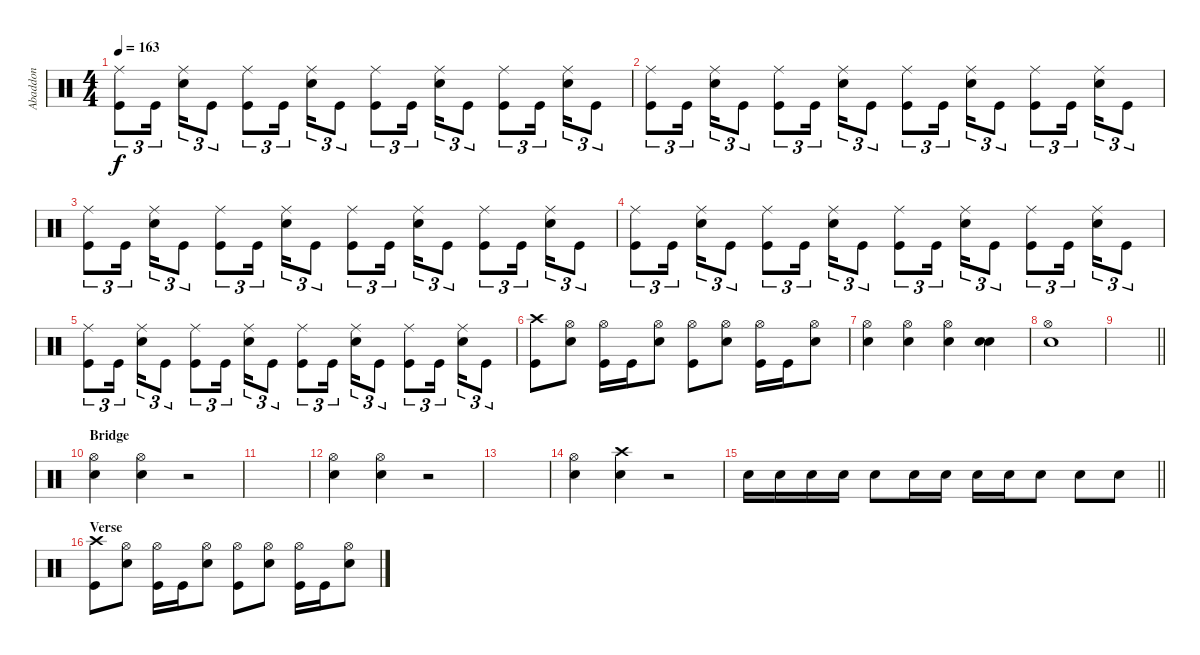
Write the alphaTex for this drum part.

\track ("Abaddon" "Abaddon") {instrument percussion}
\staff {score}
\articulation defaults
\ts (4 4)
\tempo 163
\clef neutral
\ks c
("Ride (middle)" "Kick (hit)").8{tu (3 2) dy f} "Kick (hit)".16{tu (3 2) beam splitsecondary} ("Ride (middle)" "Electric Snare (hit)").16{tu (3 2)} "Kick (hit)".8{tu (3 2)} ("Ride (middle)" "Kick (hit)").8{tu (3 2)} "Kick (hit)".16{tu (3 2) beam splitsecondary} ("Ride (middle)" "Electric Snare (hit)").16{tu (3 2)} "Kick (hit)".8{tu (3 2)} ("Ride (middle)" "Kick (hit)").8{tu (3 2)} "Kick (hit)".16{tu (3 2) beam splitsecondary} ("Ride (middle)" "Electric Snare (hit)").16{tu (3 2)} "Kick (hit)".8{tu (3 2)} ("Ride (middle)" "Kick (hit)").8{tu (3 2)} "Kick (hit)".16{tu (3 2) beam splitsecondary} ("Ride (middle)" "Electric Snare (hit)").16{tu (3 2)} "Kick (hit)".8{tu (3 2)} |
("Ride (middle)" "Kick (hit)").8{tu (3 2)} "Kick (hit)".16{tu (3 2) beam splitsecondary} ("Ride (middle)" "Electric Snare (hit)").16{tu (3 2)} "Kick (hit)".8{tu (3 2)} ("Ride (middle)" "Kick (hit)").8{tu (3 2)} "Kick (hit)".16{tu (3 2) beam splitsecondary} ("Ride (middle)" "Electric Snare (hit)").16{tu (3 2)} "Kick (hit)".8{tu (3 2)} ("Ride (middle)" "Kick (hit)").8{tu (3 2)} "Kick (hit)".16{tu (3 2) beam splitsecondary} ("Ride (middle)" "Electric Snare (hit)").16{tu (3 2)} "Kick (hit)".8{tu (3 2)} ("Ride (middle)" "Kick (hit)").8{tu (3 2)} "Kick (hit)".16{tu (3 2) beam splitsecondary} ("Ride (middle)" "Electric Snare (hit)").16{tu (3 2)} "Kick (hit)".8{tu (3 2)} |
("Ride (middle)" "Kick (hit)").8{tu (3 2)} "Kick (hit)".16{tu (3 2) beam splitsecondary} ("Ride (middle)" "Electric Snare (hit)").16{tu (3 2)} "Kick (hit)".8{tu (3 2)} ("Ride (middle)" "Kick (hit)").8{tu (3 2)} "Kick (hit)".16{tu (3 2) beam splitsecondary} ("Ride (middle)" "Electric Snare (hit)").16{tu (3 2)} "Kick (hit)".8{tu (3 2)} ("Ride (middle)" "Kick (hit)").8{tu (3 2)} "Kick (hit)".16{tu (3 2) beam splitsecondary} ("Ride (middle)" "Electric Snare (hit)").16{tu (3 2)} "Kick (hit)".8{tu (3 2)} ("Ride (middle)" "Kick (hit)").8{tu (3 2)} "Kick (hit)".16{tu (3 2) beam splitsecondary} ("Ride (middle)" "Electric Snare (hit)").16{tu (3 2)} "Kick (hit)".8{tu (3 2)} |
("Ride (middle)" "Kick (hit)").8{tu (3 2)} "Kick (hit)".16{tu (3 2) beam splitsecondary} ("Ride (middle)" "Electric Snare (hit)").16{tu (3 2)} "Kick (hit)".8{tu (3 2)} ("Ride (middle)" "Kick (hit)").8{tu (3 2)} "Kick (hit)".16{tu (3 2) beam splitsecondary} ("Ride (middle)" "Electric Snare (hit)").16{tu (3 2)} "Kick (hit)".8{tu (3 2)} ("Ride (middle)" "Kick (hit)").8{tu (3 2)} "Kick (hit)".16{tu (3 2) beam splitsecondary} ("Ride (middle)" "Electric Snare (hit)").16{tu (3 2)} "Kick (hit)".8{tu (3 2)} ("Ride (middle)" "Kick (hit)").8{tu (3 2)} "Kick (hit)".16{tu (3 2) beam splitsecondary} ("Ride (middle)" "Electric Snare (hit)").16{tu (3 2)} "Kick (hit)".8{tu (3 2)} |
("Ride (middle)" "Kick (hit)").8{tu (3 2)} "Kick (hit)".16{tu (3 2) beam splitsecondary} ("Ride (middle)" "Electric Snare (hit)").16{tu (3 2)} "Kick (hit)".8{tu (3 2)} ("Ride (middle)" "Kick (hit)").8{tu (3 2)} "Kick (hit)".16{tu (3 2) beam splitsecondary} ("Ride (middle)" "Electric Snare (hit)").16{tu (3 2)} "Kick (hit)".8{tu (3 2)} ("Ride (middle)" "Kick (hit)").8{tu (3 2)} "Kick (hit)".16{tu (3 2) beam splitsecondary} ("Ride (middle)" "Electric Snare (hit)").16{tu (3 2)} "Kick (hit)".8{tu (3 2)} ("Ride (middle)" "Kick (hit)").8{tu (3 2)} "Kick (hit)".16{tu (3 2) beam splitsecondary} ("Ride (middle)" "Electric Snare (hit)").16{tu (3 2)} "Kick (hit)".8{tu (3 2)} |
("Crash high (hit)" "Kick (hit)").8 ("Hi-Hat (open)" "Electric Snare (hit)").8 ("Hi-Hat (open)" "Kick (hit)").16 "Kick (hit)".16 ("Hi-Hat (open)" "Electric Snare (hit)").8 ("Hi-Hat (open)" "Kick (hit)").8 ("Hi-Hat (open)" "Electric Snare (hit)").8 ("Hi-Hat (open)" "Kick (hit)").16 "Kick (hit)".16 ("Hi-Hat (open)" "Electric Snare (hit)").8 |
("Hi-Hat (open)" "Electric Snare (hit)").4 ("Hi-Hat (open)" "Electric Snare (hit)").4 ("Hi-Hat (open)" "Electric Snare (hit)").4 ("Electric Snare (hit)" "Electric Snare (hit)").4 |
("Hi-Hat (open)" "Electric Snare (hit)").1 |
\barLineRight lightlight
|
\section ("" "Bridge")
("Hi-Hat (open)" "Electric Snare (hit)").4 ("Hi-Hat (open)" "Electric Snare (hit)").4 r.2 |
|
("Hi-Hat (open)" "Electric Snare (hit)").4 ("Hi-Hat (open)" "Electric Snare (hit)").4 r.2 |
|
("Hi-Hat (open)" "Electric Snare (hit)").4 ("Crash high (hit)" "Electric Snare (hit)").4 r.2 |
\barLineRight lightlight "Electric Snare (hit)".16 "Electric Snare (hit)".16 "Electric Snare (hit)".16 "Electric Snare (hit)".16 "Electric Snare (hit)".8 "Electric Snare (hit)".16 "Electric Snare (hit)".16 "Electric Snare (hit)".16 "Electric Snare (hit)".16 "Electric Snare (hit)".8 "Electric Snare (hit)".8 "Electric Snare (hit)".8
|
\section ("" "Verse")
("Crash high (hit)" "Kick (hit)").8 ("Hi-Hat (open)" "Electric Snare (hit)").8 ("Hi-Hat (open)" "Kick (hit)").16 "Kick (hit)".16 ("Hi-Hat (open)" "Electric Snare (hit)").8 ("Hi-Hat (open)" "Kick (hit)").8 ("Hi-Hat (open)" "Electric Snare (hit)").8 ("Hi-Hat (open)" "Kick (hit)").16 "Kick (hit)".16 ("Hi-Hat (open)" "Electric Snare (hit)").8
